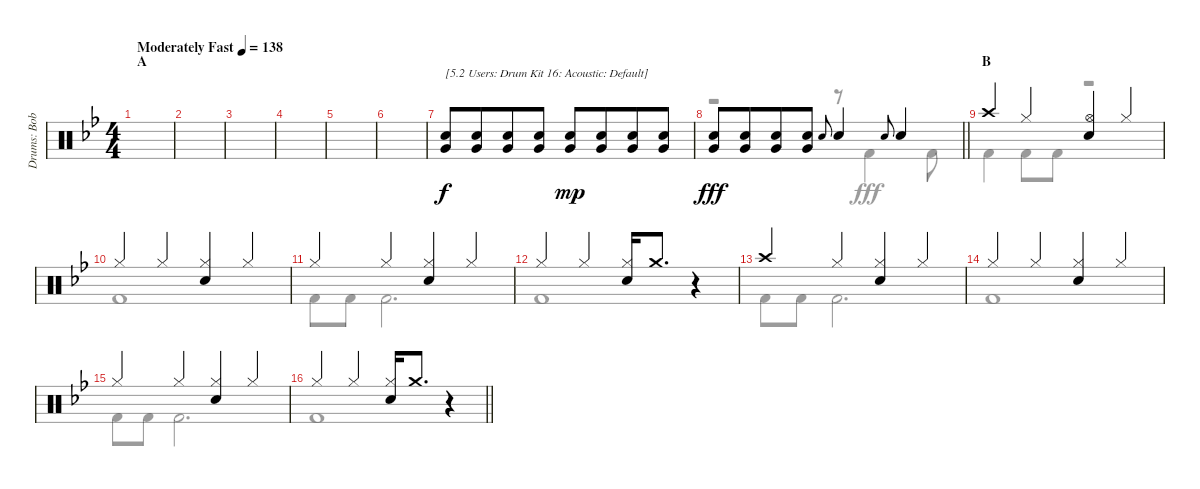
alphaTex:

\track ("Drums: Bobby" "Drums: Bob") {instrument percussion}
\staff {score}
\articulation defaults
\voice
\ts (4 4)
\section ("" "A")
\tempo (138 "Moderately Fast")
\clef neutral
\ks bb
|
|
|
|
|
|
("Electric Snare (hit)" "Very Low Tom (hit)").8{txt "[5.2 Users: Drum Kit 16: Acoustic: Default]"} ("Electric Snare (hit)" "Very Low Tom (hit)").8{beam merge} ("Electric Snare (hit)" "Very Low Tom (hit)").8 ("Electric Snare (hit)" "Very Low Tom (hit)").8 ("Snare (hit) 2" "Very Low Tom (hit)").8{dy mp} ("Snare (hit) 2" "Very Low Tom (hit)").8{beam merge} ("Snare (hit) 2" "Very Low Tom (hit)").8 ("Snare (hit) 2" "Very Low Tom (hit)").8 |
\barLineRight lightlight
("Snare (hit) 2" "Very Low Tom (hit)").8{dy fff} ("Snare (hit) 2" "Very Low Tom (hit)").8{beam merge} ("Snare (hit) 2" "Very Low Tom (hit)").8 ("Snare (hit) 2" "Very Low Tom (hit)").8 "Electric Snare (hit)".8{gr onbeat} "Snare (hit) 2".4 "Electric Snare (hit)".8{gr onbeat} "Snare (hit) 2".4 |
\section ("" "B")
"Crash high (hit)".4 "Hi-Hat (closed)".4 ("Hi-Hat (open)" "Snare (hit) 2").4 "Hi-Hat (closed)".4 |
"Hi-Hat (closed)".4 "Hi-Hat (closed)".4 ("Hi-Hat (closed)" "Snare (hit) 2").4 "Hi-Hat (closed)".4 |
"Hi-Hat (closed)".4 "Hi-Hat (closed)".4 ("Hi-Hat (closed)" "Snare (hit) 2").4 "Hi-Hat (closed)".4 |
"Hi-Hat (closed)".4 "Hi-Hat (closed)".4 ("Hi-Hat (closed)" "Snare (hit) 2").16 "Crash medium (hit)".8{d} r.4 |
"Crash high (hit)".4 "Hi-Hat (closed)".4 ("Hi-Hat (closed)" "Snare (hit) 2").4 "Hi-Hat (closed)".4 |
"Hi-Hat (closed)".4 "Hi-Hat (closed)".4 ("Hi-Hat (closed)" "Snare (hit) 2").4 "Hi-Hat (closed)".4 |
"Hi-Hat (closed)".4 "Hi-Hat (closed)".4 ("Hi-Hat (closed)" "Snare (hit) 2").4 "Hi-Hat (closed)".4 |
\barLineRight lightlight "Hi-Hat (closed)".4 "Hi-Hat (closed)".4
("Hi-Hat (closed)" "Snare (hit) 2").16 "Crash medium (hit)".8{d} r.4
\voice
\clef neutral
\ottava regular
\simile none
\ks bb
|
|
|
|
|
|
|
\barLineRight lightlight
r.2 r.8 "Kick (hit) 2".4 "Kick (hit) 2".8 |
"Kick (hit) 2".4 "Kick (hit) 2".8 "Kick (hit) 2".8 r.2 |
"Kick (hit) 2".1 |
"Kick (hit) 2".8 "Kick (hit) 2".8 "Kick (hit) 2".2{d} |
"Kick (hit) 2".1 |
"Kick (hit) 2".8 "Kick (hit) 2".8 "Kick (hit) 2".2{d} |
"Kick (hit) 2".1 |
"Kick (hit) 2".8 "Kick (hit) 2".8 "Kick (hit) 2".2{d} |
\barLineRight lightlight "Kick (hit) 2".1
